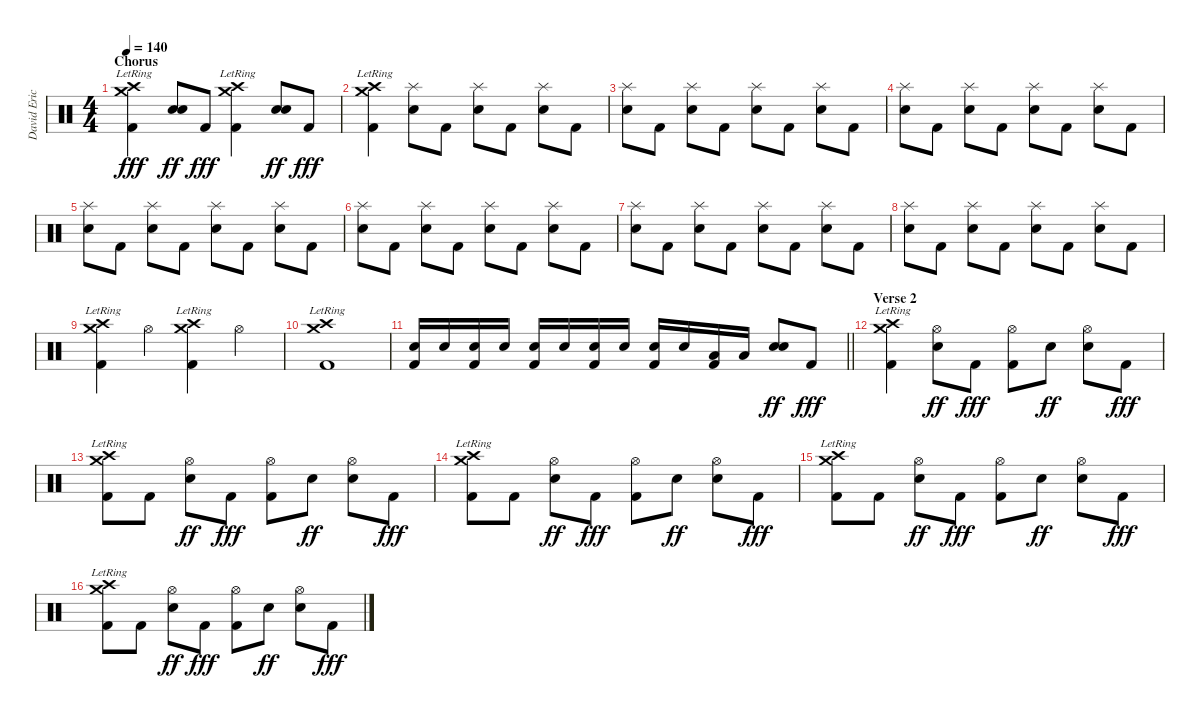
\track ("David Eric Grohl" "David Eric") {instrument percussion}
\staff {score}
\articulation defaults
\ts (4 4)
\section ("" "Chorus")
\tempo 140
\clef neutral
\ks c
("Crash high (hit)"{lr} "Crash medium (hit)"{lr} "Kick (hit) 2").4{dy fff} ("Electric Snare (hit)" "Electric Snare (hit)").8{dy ff} "Kick (hit) 2".8{dy fff} ("Crash high (hit)"{lr} "Crash medium (hit)"{lr} "Kick (hit) 2").4 ("Electric Snare (hit)" "Electric Snare (hit)").8{dy ff} "Kick (hit) 2".8{dy fff} |
("Crash high (hit)"{lr} "Crash medium (hit)"{lr} "Kick (hit) 2").4 ("Electric Snare (hit)" "Splash (hit)").8 "Kick (hit) 2".8 ("Electric Snare (hit)" "Splash (hit)").8 "Kick (hit) 2".8 ("Electric Snare (hit)" "Splash (hit)").8 "Kick (hit) 2".8 |
("Electric Snare (hit)" "Splash (hit)").8 "Kick (hit) 2".8 ("Electric Snare (hit)" "Splash (hit)").8 "Kick (hit) 2".8 ("Electric Snare (hit)" "Splash (hit)").8 "Kick (hit) 2".8 ("Electric Snare (hit)" "Splash (hit)").8 "Kick (hit) 2".8 |
("Electric Snare (hit)" "Splash (hit)").8 "Kick (hit) 2".8 ("Electric Snare (hit)" "Splash (hit)").8 "Kick (hit) 2".8 ("Electric Snare (hit)" "Splash (hit)").8 "Kick (hit) 2".8 ("Electric Snare (hit)" "Splash (hit)").8 "Kick (hit) 2".8 |
("Electric Snare (hit)" "Splash (hit)").8 "Kick (hit) 2".8 ("Electric Snare (hit)" "Splash (hit)").8 "Kick (hit) 2".8 ("Electric Snare (hit)" "Splash (hit)").8 "Kick (hit) 2".8 ("Electric Snare (hit)" "Splash (hit)").8 "Kick (hit) 2".8 |
("Electric Snare (hit)" "Splash (hit)").8 "Kick (hit) 2".8 ("Electric Snare (hit)" "Splash (hit)").8 "Kick (hit) 2".8 ("Electric Snare (hit)" "Splash (hit)").8 "Kick (hit) 2".8 ("Electric Snare (hit)" "Splash (hit)").8 "Kick (hit) 2".8 |
("Electric Snare (hit)" "Splash (hit)").8 "Kick (hit) 2".8 ("Electric Snare (hit)" "Splash (hit)").8 "Kick (hit) 2".8 ("Electric Snare (hit)" "Splash (hit)").8 "Kick (hit) 2".8 ("Electric Snare (hit)" "Splash (hit)").8 "Kick (hit) 2".8 |
("Electric Snare (hit)" "Splash (hit)").8 "Kick (hit) 2".8 ("Electric Snare (hit)" "Splash (hit)").8 "Kick (hit) 2".8 ("Electric Snare (hit)" "Splash (hit)").8 "Kick (hit) 2".8 ("Electric Snare (hit)" "Splash (hit)").8 "Kick (hit) 2".8 |
("Crash high (hit)"{lr} "Crash medium (hit)"{lr} "Kick (hit) 2").4 "Hi-Hat (open)".4 ("Crash high (hit)"{lr} "Crash medium (hit)" "Kick (hit) 2").4 "Hi-Hat (open)".4 |
("Crash high (hit)"{lr} "Crash medium (hit)"{lr} "Kick (hit) 2").1 |
\barLineRight lightlight
("Electric Snare (hit)" "Kick (hit) 2").16 "Electric Snare (hit)".16 ("Electric Snare (hit)" "Kick (hit) 2").16 "Electric Snare (hit)".16 ("Electric Snare (hit)" "Kick (hit) 2").16 "Electric Snare (hit)".16 ("Electric Snare (hit)" "Kick (hit) 2").16 "Electric Snare (hit)".16 ("Electric Snare (hit)" "Kick (hit) 2").16 "Electric Snare (hit)".16 ("Low Tom (hit)" "Kick (hit) 2").16 "Low Tom (hit)".16 ("Electric Snare (hit)" "Electric Snare (hit)").8{dy ff} "Kick (hit) 2".8{dy fff} |
\section ("" "Verse 2")
("Crash high (hit)"{lr} "Crash medium (hit)"{lr} "Kick (hit) 2").4 ("Hi-Hat (open)" "Electric Snare (hit)").8{dy ff} "Kick (hit) 2".8{dy fff} ("Hi-Hat (open)" "Kick (hit) 2").8 "Electric Snare (hit)".8{dy ff} ("Hi-Hat (open)" "Electric Snare (hit)").8 "Kick (hit) 2".8{dy fff} |
("Crash high (hit)"{lr} "Crash medium (hit)"{lr} "Kick (hit) 2").8 "Kick (hit) 2".8 ("Hi-Hat (open)" "Electric Snare (hit)").8{dy ff} "Kick (hit) 2".8{dy fff} ("Hi-Hat (open)" "Kick (hit) 2").8 "Electric Snare (hit)".8{dy ff} ("Hi-Hat (open)" "Electric Snare (hit)").8 "Kick (hit) 2".8{dy fff} |
("Crash high (hit)"{lr} "Crash medium (hit)"{lr} "Kick (hit) 2").8 "Kick (hit) 2".8 ("Hi-Hat (open)" "Electric Snare (hit)").8{dy ff} "Kick (hit) 2".8{dy fff} ("Hi-Hat (open)" "Kick (hit) 2").8 "Electric Snare (hit)".8{dy ff} ("Hi-Hat (open)" "Electric Snare (hit)").8 "Kick (hit) 2".8{dy fff} |
("Crash high (hit)"{lr} "Crash medium (hit)"{lr} "Kick (hit) 2").8 "Kick (hit) 2".8 ("Hi-Hat (open)" "Electric Snare (hit)").8{dy ff} "Kick (hit) 2".8{dy fff} ("Hi-Hat (open)" "Kick (hit) 2").8 "Electric Snare (hit)".8{dy ff} ("Hi-Hat (open)" "Electric Snare (hit)").8 "Kick (hit) 2".8{dy fff} |
("Crash high (hit)"{lr} "Crash medium (hit)"{lr} "Kick (hit) 2").8 "Kick (hit) 2".8 ("Hi-Hat (open)" "Electric Snare (hit)").8{dy ff} "Kick (hit) 2".8{dy fff} ("Hi-Hat (open)" "Kick (hit) 2").8 "Electric Snare (hit)".8{dy ff} ("Hi-Hat (open)" "Electric Snare (hit)").8 "Kick (hit) 2".8{dy fff}
